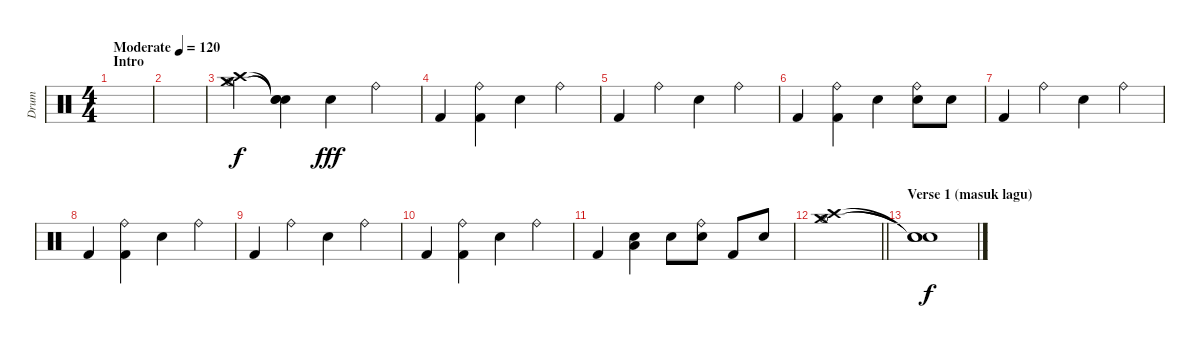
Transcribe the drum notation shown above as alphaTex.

\track ("Drum" "Drum") {instrument percussion}
\staff {score}
\articulation defaults
\ts (4 4)
\section ("" "Intro")
\tempo (120 "Moderate")
\clef neutral
\ks c
|
|
("Hi-Hat (open)" "Crash high (hit)" "Crash medium (hit)").4 ("Snare (hit)"{t} "Snare (hit)"{t} "Snare (hit)"{t}).4{dy f} "Electric Snare (hit)".4{dy fff} "Ride (bell)".4 |
"Kick (hit) 2".4 ("Kick (hit) 2" "Ride (bell)").4 "Electric Snare (hit)".4 "Ride (bell)".4 |
"Kick (hit) 2".4 "Ride (bell)".4 "Electric Snare (hit)".4 "Ride (bell)".4 |
"Kick (hit) 2".4 ("Kick (hit) 2" "Ride (bell)").4 "Electric Snare (hit)".4 ("Electric Snare (hit)" "Ride (bell)").8 "Electric Snare (hit)".8 |
"Kick (hit) 2".4 "Ride (bell)".4 "Electric Snare (hit)".4 "Ride (bell)".4 |
"Kick (hit) 2".4 ("Kick (hit) 2" "Ride (bell)").4 "Electric Snare (hit)".4 "Ride (bell)".4 |
"Kick (hit) 2".4 "Ride (bell)".4 "Electric Snare (hit)".4 "Ride (bell)".4 |
"Kick (hit) 2".4 ("Kick (hit) 2" "Ride (bell)").4 "Electric Snare (hit)".4 "Ride (bell)".4 |
"Kick (hit) 2".4 ("Electric Snare (hit)" "Low Tom (hit)").4 "Electric Snare (hit)".8 ("Electric Snare (hit)" "Ride (bell)").8 "Kick (hit) 2".8 "Electric Snare (hit)".8 |
\barLineRight lightlight
("Hi-Hat (open)" "Crash high (hit)" "Crash medium (hit)").1 |
\section ("" "Verse 1 (masuk lagu)")
("Snare (hit)"{t} "Snare (hit)"{t} "Snare (hit)"{t}).1{dy f}
